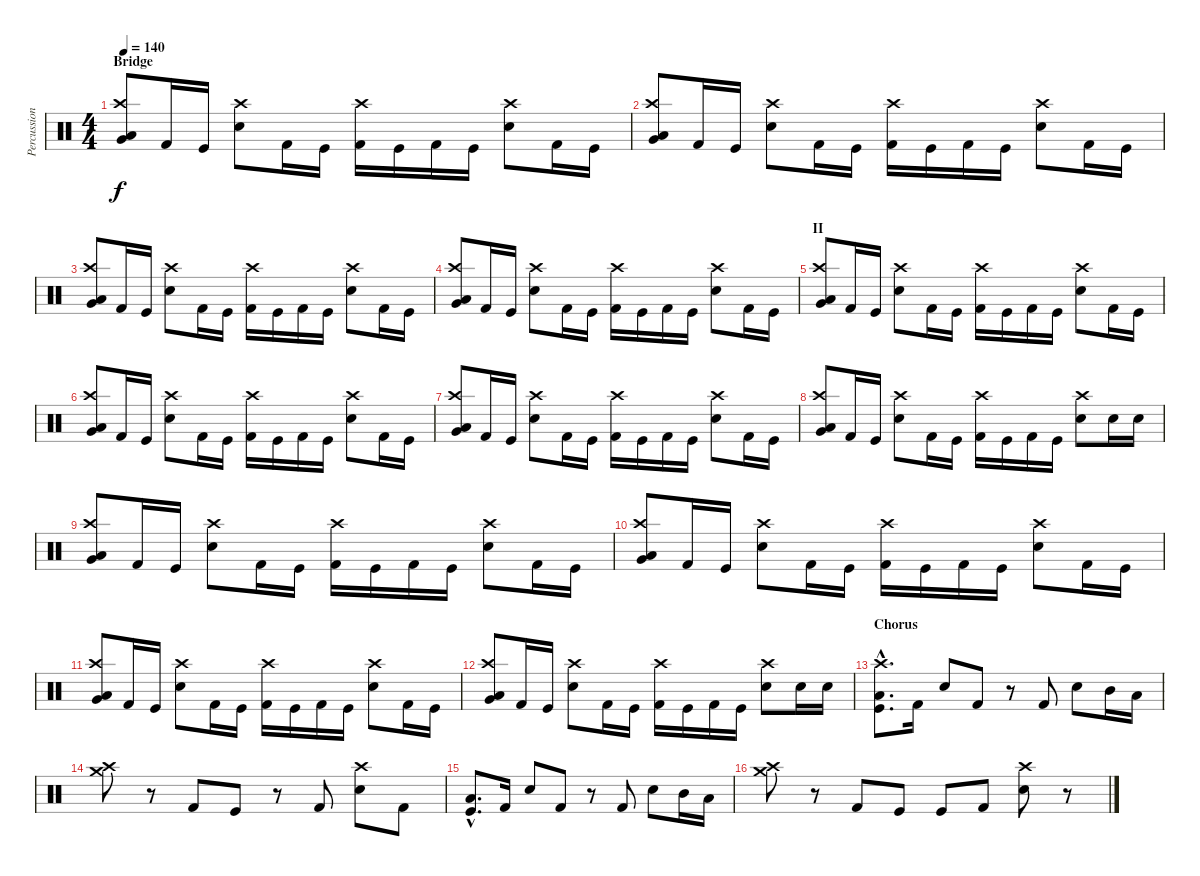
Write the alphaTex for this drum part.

\track ("Percussion" "Percussion") {instrument percussion}
\staff {score}
\articulation defaults
\ts (4 4)
\section ("" "Bridge")
\tempo 140
\clef neutral
\ks c
("Very Low Tom (hit)" "Crash high (hit)" "Low Tom (hit)").8{dy f} "Kick (hit) 2".16 "Kick (hit)".16 ("Electric Snare (hit)" "Crash high (hit)").8 "Kick (hit) 2".16 "Kick (hit)".16 ("Kick (hit) 2" "Crash high (hit)").16 "Kick (hit)".16 "Kick (hit) 2".16 "Kick (hit)".16 ("Electric Snare (hit)" "Crash high (hit)").8 "Kick (hit) 2".16 "Kick (hit)".16 |
("Very Low Tom (hit)" "Crash high (hit)" "Low Tom (hit)").8 "Kick (hit) 2".16 "Kick (hit)".16 ("Electric Snare (hit)" "Crash high (hit)").8 "Kick (hit) 2".16 "Kick (hit)".16 ("Kick (hit) 2" "Crash high (hit)").16 "Kick (hit)".16 "Kick (hit) 2".16 "Kick (hit)".16 ("Electric Snare (hit)" "Crash high (hit)").8 "Kick (hit) 2".16 "Kick (hit)".16 |
("Very Low Tom (hit)" "Crash high (hit)" "Low Tom (hit)").8 "Kick (hit) 2".16 "Kick (hit)".16 ("Electric Snare (hit)" "Crash high (hit)").8 "Kick (hit) 2".16 "Kick (hit)".16 ("Kick (hit) 2" "Crash high (hit)").16 "Kick (hit)".16 "Kick (hit) 2".16 "Kick (hit)".16 ("Electric Snare (hit)" "Crash high (hit)").8 "Kick (hit) 2".16 "Kick (hit)".16 |
("Very Low Tom (hit)" "Crash high (hit)" "Low Tom (hit)").8 "Kick (hit) 2".16 "Kick (hit)".16 ("Electric Snare (hit)" "Crash high (hit)").8 "Kick (hit) 2".16 "Kick (hit)".16 ("Kick (hit) 2" "Crash high (hit)").16 "Kick (hit)".16 "Kick (hit) 2".16 "Kick (hit)".16 ("Electric Snare (hit)" "Crash high (hit)").8 "Kick (hit) 2".16 "Kick (hit)".16 |
\section ("" "II")
("Very Low Tom (hit)" "Crash high (hit)" "Low Tom (hit)").8 "Kick (hit) 2".16 "Kick (hit)".16 ("Electric Snare (hit)" "Crash high (hit)").8 "Kick (hit) 2".16 "Kick (hit)".16 ("Kick (hit) 2" "Crash high (hit)").16 "Kick (hit)".16 "Kick (hit) 2".16 "Kick (hit)".16 ("Electric Snare (hit)" "Crash high (hit)").8 "Kick (hit) 2".16 "Kick (hit)".16 |
("Very Low Tom (hit)" "Crash high (hit)" "Low Tom (hit)").8 "Kick (hit) 2".16 "Kick (hit)".16 ("Electric Snare (hit)" "Crash high (hit)").8 "Kick (hit) 2".16 "Kick (hit)".16 ("Kick (hit) 2" "Crash high (hit)").16 "Kick (hit)".16 "Kick (hit) 2".16 "Kick (hit)".16 ("Electric Snare (hit)" "Crash high (hit)").8 "Kick (hit) 2".16 "Kick (hit)".16 |
("Very Low Tom (hit)" "Crash high (hit)" "Low Tom (hit)").8 "Kick (hit) 2".16 "Kick (hit)".16 ("Electric Snare (hit)" "Crash high (hit)").8 "Kick (hit) 2".16 "Kick (hit)".16 ("Kick (hit) 2" "Crash high (hit)").16 "Kick (hit)".16 "Kick (hit) 2".16 "Kick (hit)".16 ("Electric Snare (hit)" "Crash high (hit)").8 "Kick (hit) 2".16 "Kick (hit)".16 |
("Very Low Tom (hit)" "Crash high (hit)" "Low Tom (hit)").8 "Kick (hit) 2".16 "Kick (hit)".16 ("Electric Snare (hit)" "Crash high (hit)").8 "Kick (hit) 2".16 "Kick (hit)".16 ("Kick (hit) 2" "Crash high (hit)").16 "Kick (hit)".16 "Kick (hit) 2".16 "Kick (hit)".16 ("Electric Snare (hit)" "Crash high (hit)").8 "Snare (hit) 2".16 "Snare (hit) 2".16 |
("Very Low Tom (hit)" "Crash high (hit)" "Low Tom (hit)").8 "Kick (hit) 2".16 "Kick (hit)".16 ("Electric Snare (hit)" "Crash high (hit)").8 "Kick (hit) 2".16 "Kick (hit)".16 ("Kick (hit) 2" "Crash high (hit)").16 "Kick (hit)".16 "Kick (hit) 2".16 "Kick (hit)".16 ("Electric Snare (hit)" "Crash high (hit)").8 "Kick (hit) 2".16 "Kick (hit)".16 |
("Very Low Tom (hit)" "Crash high (hit)" "Low Tom (hit)").8 "Kick (hit) 2".16 "Kick (hit)".16 ("Electric Snare (hit)" "Crash high (hit)").8 "Kick (hit) 2".16 "Kick (hit)".16 ("Kick (hit) 2" "Crash high (hit)").16 "Kick (hit)".16 "Kick (hit) 2".16 "Kick (hit)".16 ("Electric Snare (hit)" "Crash high (hit)").8 "Kick (hit) 2".16 "Kick (hit)".16 |
("Very Low Tom (hit)" "Crash high (hit)" "Low Tom (hit)").8 "Kick (hit) 2".16 "Kick (hit)".16 ("Electric Snare (hit)" "Crash high (hit)").8 "Kick (hit) 2".16 "Kick (hit)".16 ("Kick (hit) 2" "Crash high (hit)").16 "Kick (hit)".16 "Kick (hit) 2".16 "Kick (hit)".16 ("Electric Snare (hit)" "Crash high (hit)").8 "Kick (hit) 2".16 "Kick (hit)".16 |
("Very Low Tom (hit)" "Crash high (hit)" "Low Tom (hit)").8 "Kick (hit) 2".16 "Kick (hit)".16 ("Electric Snare (hit)" "Crash high (hit)").8 "Kick (hit) 2".16 "Kick (hit)".16 ("Kick (hit) 2" "Crash high (hit)").16 "Kick (hit)".16 "Kick (hit) 2".16 "Kick (hit)".16 ("Electric Snare (hit)" "Crash high (hit)").8 "Snare (hit) 2".16 "Snare (hit) 2".16 |
\section ("" "Chorus")
("Low Tom (hit)"{hac} "Kick (hit)"{hac} "Crash high (hit)"{hac}).8{d} "Kick (hit) 2".16 "Electric Snare (hit)".8 "Kick (hit) 2".8 r.8 "Kick (hit) 2".8 "Electric Snare (hit)".8 "Mid Tom (hit)".16 "Low Tom (hit)".16 |
("Crash medium (hit)" "Crash high (hit)").8 r.8 "Kick (hit) 2".8 "Kick (hit)".8 r.8 "Kick (hit) 2".8 ("Electric Snare (hit)" "Crash high (hit)").8 "Kick (hit) 2".8 |
("Low Tom (hit)"{hac} "Kick (hit)"{hac}).8{d} "Kick (hit) 2".16 "Electric Snare (hit)".8 "Kick (hit) 2".8 r.8 "Kick (hit) 2".8 "Electric Snare (hit)".8 "Mid Tom (hit)".16 "Low Tom (hit)".16 |
("Crash medium (hit)" "Crash high (hit)").8 r.8 "Kick (hit) 2".8 "Kick (hit)".8 "Kick (hit)".8 "Kick (hit) 2".8 ("Electric Snare (hit)" "Crash high (hit)").8 r.8
